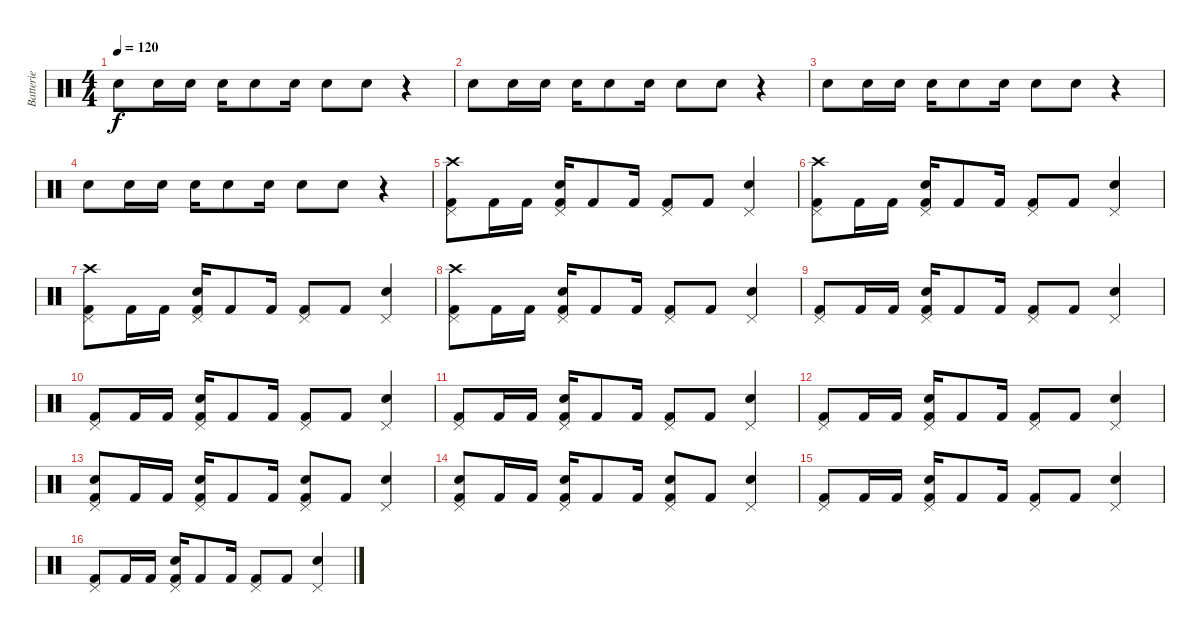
\track ("Batterie" "Batterie") {instrument percussion}
\staff {score}
\articulation defaults
\ts (4 4)
\tempo 120
\clef neutral
\ks c "Snare (hit) 2".8{dy f} "Snare (hit) 2".16 "Snare (hit) 2".16 "Snare (hit) 2".16 "Snare (hit) 2".8 "Snare (hit) 2".16 "Snare (hit) 2".8 "Snare (hit) 2".8
r.4 |
"Snare (hit) 2".8 "Snare (hit) 2".16 "Snare (hit) 2".16 "Snare (hit) 2".16 "Snare (hit) 2".8 "Snare (hit) 2".16 "Snare (hit) 2".8 "Snare (hit) 2".8 r.4 |
"Snare (hit) 2".8 "Snare (hit) 2".16 "Snare (hit) 2".16 "Snare (hit) 2".16 "Snare (hit) 2".8 "Snare (hit) 2".16 "Snare (hit) 2".8 "Snare (hit) 2".8 r.4 |
"Snare (hit) 2".8 "Snare (hit) 2".16 "Snare (hit) 2".16 "Snare (hit) 2".16 "Snare (hit) 2".8 "Snare (hit) 2".16 "Snare (hit) 2".8 "Snare (hit) 2".8 r.4 |
("Crash high (hit)" "Kick (hit) 2" "Pedal Hi-Hat (hit)").8 "Kick (hit) 2".16 "Kick (hit) 2".16 ("Snare (hit) 2" "Kick (hit) 2" "Pedal Hi-Hat (hit)").16 "Kick (hit) 2".8 "Kick (hit) 2".16 ("Kick (hit) 2" "Pedal Hi-Hat (hit)").8 "Kick (hit) 2".8 ("Snare (hit) 2" "Pedal Hi-Hat (hit)").4 |
("Crash high (hit)" "Kick (hit) 2" "Pedal Hi-Hat (hit)").8 "Kick (hit) 2".16 "Kick (hit) 2".16 ("Snare (hit) 2" "Kick (hit) 2" "Pedal Hi-Hat (hit)").16 "Kick (hit) 2".8 "Kick (hit) 2".16 ("Kick (hit) 2" "Pedal Hi-Hat (hit)").8 "Kick (hit) 2".8 ("Snare (hit) 2" "Pedal Hi-Hat (hit)").4 |
("Crash high (hit)" "Kick (hit) 2" "Pedal Hi-Hat (hit)").8 "Kick (hit) 2".16 "Kick (hit) 2".16 ("Snare (hit) 2" "Kick (hit) 2" "Pedal Hi-Hat (hit)").16 "Kick (hit) 2".8 "Kick (hit) 2".16 ("Kick (hit) 2" "Pedal Hi-Hat (hit)").8 "Kick (hit) 2".8 ("Snare (hit) 2" "Pedal Hi-Hat (hit)").4 |
("Crash high (hit)" "Kick (hit) 2" "Pedal Hi-Hat (hit)").8 "Kick (hit) 2".16 "Kick (hit) 2".16 ("Snare (hit) 2" "Kick (hit) 2" "Pedal Hi-Hat (hit)").16 "Kick (hit) 2".8 "Kick (hit) 2".16 ("Kick (hit) 2" "Pedal Hi-Hat (hit)").8 "Kick (hit) 2".8 ("Snare (hit) 2" "Pedal Hi-Hat (hit)").4 |
("Kick (hit) 2" "Pedal Hi-Hat (hit)").8 "Kick (hit) 2".16 "Kick (hit) 2".16 ("Snare (hit) 2" "Kick (hit) 2" "Pedal Hi-Hat (hit)").16 "Kick (hit) 2".8 "Kick (hit) 2".16 ("Kick (hit) 2" "Pedal Hi-Hat (hit)").8 "Kick (hit) 2".8 ("Snare (hit) 2" "Pedal Hi-Hat (hit)").4 |
("Kick (hit) 2" "Pedal Hi-Hat (hit)").8 "Kick (hit) 2".16 "Kick (hit) 2".16 ("Snare (hit) 2" "Kick (hit) 2" "Pedal Hi-Hat (hit)").16 "Kick (hit) 2".8 "Kick (hit) 2".16 ("Kick (hit) 2" "Pedal Hi-Hat (hit)").8 "Kick (hit) 2".8 ("Snare (hit) 2" "Pedal Hi-Hat (hit)").4 |
("Kick (hit) 2" "Pedal Hi-Hat (hit)").8 "Kick (hit) 2".16 "Kick (hit) 2".16 ("Snare (hit) 2" "Kick (hit) 2" "Pedal Hi-Hat (hit)").16 "Kick (hit) 2".8 "Kick (hit) 2".16 ("Kick (hit) 2" "Pedal Hi-Hat (hit)").8 "Kick (hit) 2".8 ("Snare (hit) 2" "Pedal Hi-Hat (hit)").4 |
("Kick (hit) 2" "Pedal Hi-Hat (hit)").8 "Kick (hit) 2".16 "Kick (hit) 2".16 ("Snare (hit) 2" "Kick (hit) 2" "Pedal Hi-Hat (hit)").16 "Kick (hit) 2".8 "Kick (hit) 2".16 ("Kick (hit) 2" "Pedal Hi-Hat (hit)").8 "Kick (hit) 2".8 ("Snare (hit) 2" "Pedal Hi-Hat (hit)").4 |
("Snare (hit) 2" "Kick (hit) 2" "Pedal Hi-Hat (hit)").8 "Kick (hit) 2".16 "Kick (hit) 2".16 ("Snare (hit) 2" "Kick (hit) 2" "Pedal Hi-Hat (hit)").16 "Kick (hit) 2".8 "Kick (hit) 2".16 ("Snare (hit) 2" "Kick (hit) 2" "Pedal Hi-Hat (hit)").8 "Kick (hit) 2".8 ("Snare (hit) 2" "Pedal Hi-Hat (hit)").4 |
("Snare (hit) 2" "Kick (hit) 2" "Pedal Hi-Hat (hit)").8 "Kick (hit) 2".16 "Kick (hit) 2".16 ("Snare (hit) 2" "Kick (hit) 2" "Pedal Hi-Hat (hit)").16 "Kick (hit) 2".8 "Kick (hit) 2".16 ("Snare (hit) 2" "Kick (hit) 2" "Pedal Hi-Hat (hit)").8 "Kick (hit) 2".8 ("Snare (hit) 2" "Pedal Hi-Hat (hit)").4 |
("Kick (hit) 2" "Pedal Hi-Hat (hit)").8 "Kick (hit) 2".16 "Kick (hit) 2".16 ("Snare (hit) 2" "Kick (hit) 2" "Pedal Hi-Hat (hit)").16 "Kick (hit) 2".8 "Kick (hit) 2".16 ("Kick (hit) 2" "Pedal Hi-Hat (hit)").8 "Kick (hit) 2".8 ("Snare (hit) 2" "Pedal Hi-Hat (hit)").4 |
("Kick (hit) 2" "Pedal Hi-Hat (hit)").8 "Kick (hit) 2".16 "Kick (hit) 2".16 ("Snare (hit) 2" "Kick (hit) 2" "Pedal Hi-Hat (hit)").16 "Kick (hit) 2".8 "Kick (hit) 2".16 ("Kick (hit) 2" "Pedal Hi-Hat (hit)").8 "Kick (hit) 2".8 ("Snare (hit) 2" "Pedal Hi-Hat (hit)").4
